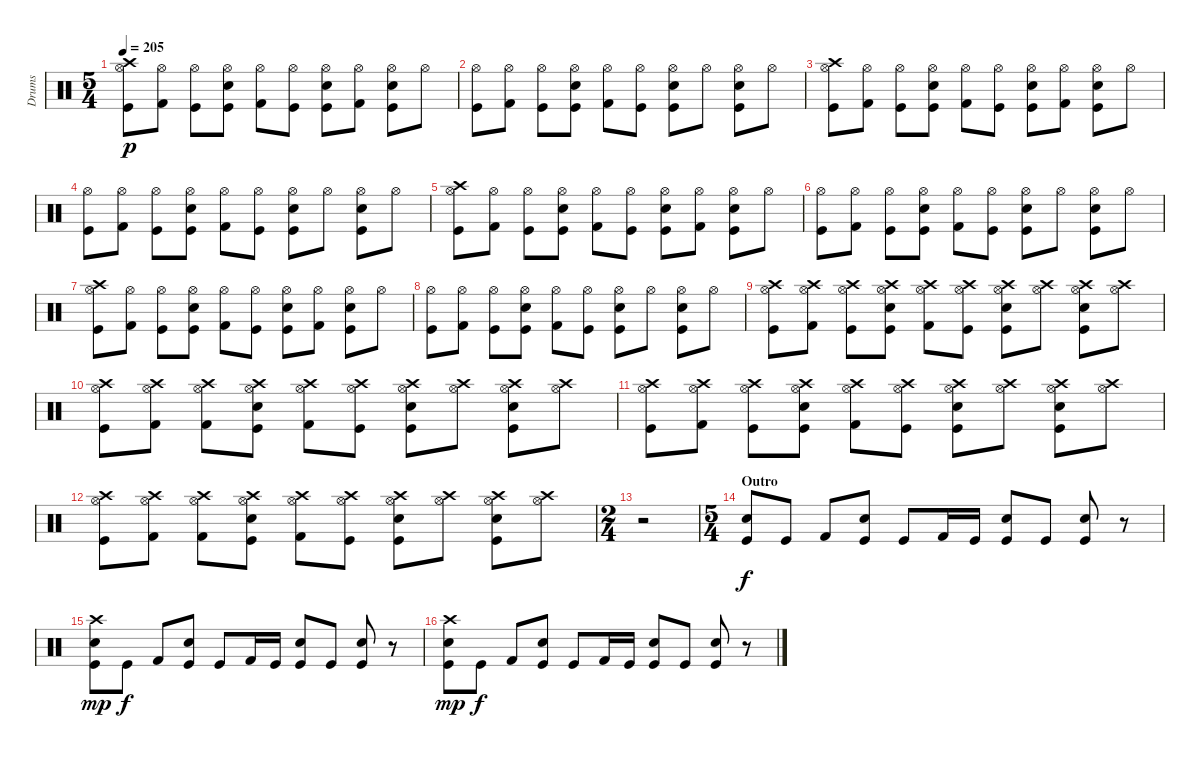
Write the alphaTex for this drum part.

\track ("Drums" "Drums") {instrument percussion}
\staff {score}
\articulation defaults
\ts (5 4)
\tempo 205
\clef neutral
\ks c
("Crash high (hit)" "Hi-Hat (open)" "Kick (hit)").8{dy p} ("Hi-Hat (open)" "Kick (hit) 2").8 ("Hi-Hat (open)" "Kick (hit)").8 ("Hi-Hat (open)" "Snare (hit) 2" "Kick (hit)").8 ("Hi-Hat (open)" "Kick (hit) 2").8 ("Hi-Hat (open)" "Kick (hit)").8 ("Hi-Hat (open)" "Snare (hit) 2" "Kick (hit)").8 ("Hi-Hat (open)" "Kick (hit) 2").8 ("Hi-Hat (open)" "Snare (hit) 2" "Kick (hit)").8 "Hi-Hat (open)".8 |
("Hi-Hat (open)" "Kick (hit)").8 ("Hi-Hat (open)" "Kick (hit) 2").8 ("Hi-Hat (open)" "Kick (hit)").8 ("Hi-Hat (open)" "Snare (hit) 2" "Kick (hit)").8 ("Hi-Hat (open)" "Kick (hit) 2").8 ("Hi-Hat (open)" "Kick (hit)").8 ("Hi-Hat (open)" "Snare (hit) 2" "Kick (hit)").8 "Hi-Hat (open)".8 ("Hi-Hat (open)" "Snare (hit) 2" "Kick (hit)").8 "Hi-Hat (open)".8 |
("Crash high (hit)" "Hi-Hat (open)" "Kick (hit)").8 ("Hi-Hat (open)" "Kick (hit) 2").8 ("Hi-Hat (open)" "Kick (hit)").8 ("Hi-Hat (open)" "Snare (hit) 2" "Kick (hit)").8 ("Hi-Hat (open)" "Kick (hit) 2").8 ("Hi-Hat (open)" "Kick (hit)").8 ("Hi-Hat (open)" "Snare (hit) 2" "Kick (hit)").8 ("Hi-Hat (open)" "Kick (hit) 2").8 ("Hi-Hat (open)" "Snare (hit) 2" "Kick (hit)").8 "Hi-Hat (open)".8 |
("Hi-Hat (open)" "Kick (hit)").8 ("Hi-Hat (open)" "Kick (hit) 2").8 ("Hi-Hat (open)" "Kick (hit)").8 ("Hi-Hat (open)" "Snare (hit) 2" "Kick (hit)").8 ("Hi-Hat (open)" "Kick (hit) 2").8 ("Hi-Hat (open)" "Kick (hit)").8 ("Hi-Hat (open)" "Snare (hit) 2" "Kick (hit)").8 "Hi-Hat (open)".8 ("Hi-Hat (open)" "Snare (hit) 2" "Kick (hit)").8 "Hi-Hat (open)".8 |
("Crash high (hit)" "Hi-Hat (open)" "Kick (hit)").8 ("Hi-Hat (open)" "Kick (hit) 2").8 ("Hi-Hat (open)" "Kick (hit)").8 ("Hi-Hat (open)" "Snare (hit) 2" "Kick (hit)").8 ("Hi-Hat (open)" "Kick (hit) 2").8 ("Hi-Hat (open)" "Kick (hit)").8 ("Hi-Hat (open)" "Snare (hit) 2" "Kick (hit)").8 ("Hi-Hat (open)" "Kick (hit) 2").8 ("Hi-Hat (open)" "Snare (hit) 2" "Kick (hit)").8 "Hi-Hat (open)".8 |
("Hi-Hat (open)" "Kick (hit)").8 ("Hi-Hat (open)" "Kick (hit) 2").8 ("Hi-Hat (open)" "Kick (hit)").8 ("Hi-Hat (open)" "Snare (hit) 2" "Kick (hit)").8 ("Hi-Hat (open)" "Kick (hit) 2").8 ("Hi-Hat (open)" "Kick (hit)").8 ("Hi-Hat (open)" "Snare (hit) 2" "Kick (hit)").8 "Hi-Hat (open)".8 ("Hi-Hat (open)" "Snare (hit) 2" "Kick (hit)").8 "Hi-Hat (open)".8 |
("Crash high (hit)" "Hi-Hat (open)" "Kick (hit)").8 ("Hi-Hat (open)" "Kick (hit) 2").8 ("Hi-Hat (open)" "Kick (hit)").8 ("Hi-Hat (open)" "Snare (hit) 2" "Kick (hit)").8 ("Hi-Hat (open)" "Kick (hit) 2").8 ("Hi-Hat (open)" "Kick (hit)").8 ("Hi-Hat (open)" "Snare (hit) 2" "Kick (hit)").8 ("Hi-Hat (open)" "Kick (hit) 2").8 ("Hi-Hat (open)" "Snare (hit) 2" "Kick (hit)").8 "Hi-Hat (open)".8 |
("Hi-Hat (open)" "Kick (hit)").8 ("Hi-Hat (open)" "Kick (hit) 2").8 ("Hi-Hat (open)" "Kick (hit)").8 ("Hi-Hat (open)" "Snare (hit) 2" "Kick (hit)").8 ("Hi-Hat (open)" "Kick (hit) 2").8 ("Hi-Hat (open)" "Kick (hit)").8 ("Hi-Hat (open)" "Snare (hit) 2" "Kick (hit)").8 "Hi-Hat (open)".8 ("Hi-Hat (open)" "Snare (hit) 2" "Kick (hit)").8 "Hi-Hat (open)".8 |
("Crash high (hit)" "Hi-Hat (open)" "Kick (hit)").8 ("Crash high (hit)" "Hi-Hat (open)" "Kick (hit) 2").8 ("Crash high (hit)" "Hi-Hat (open)" "Kick (hit)").8 ("Crash high (hit)" "Hi-Hat (open)" "Snare (hit) 2" "Kick (hit)").8 ("Crash high (hit)" "Hi-Hat (open)" "Kick (hit) 2").8 ("Crash high (hit)" "Hi-Hat (open)" "Kick (hit)").8 ("Crash high (hit)" "Hi-Hat (open)" "Snare (hit) 2" "Kick (hit)").8 ("Crash high (hit)" "Hi-Hat (open)").8 ("Crash high (hit)" "Hi-Hat (open)" "Snare (hit) 2" "Kick (hit)").8 ("Crash high (hit)" "Hi-Hat (open)").8 |
("Crash high (hit)" "Hi-Hat (open)" "Kick (hit)").8 ("Crash high (hit)" "Hi-Hat (open)" "Kick (hit) 2").8 ("Crash high (hit)" "Hi-Hat (open)" "Kick (hit) 2").8 ("Crash high (hit)" "Hi-Hat (open)" "Snare (hit) 2" "Kick (hit)").8 ("Crash high (hit)" "Hi-Hat (open)" "Kick (hit) 2").8 ("Crash high (hit)" "Hi-Hat (open)" "Kick (hit)").8 ("Crash high (hit)" "Hi-Hat (open)" "Snare (hit) 2" "Kick (hit)").8 ("Crash high (hit)" "Hi-Hat (open)").8 ("Crash high (hit)" "Hi-Hat (open)" "Snare (hit) 2" "Kick (hit)").8 ("Crash high (hit)" "Hi-Hat (open)").8 |
("Crash high (hit)" "Hi-Hat (open)" "Kick (hit)").8 ("Crash high (hit)" "Hi-Hat (open)" "Kick (hit) 2").8 ("Crash high (hit)" "Hi-Hat (open)" "Kick (hit)").8 ("Crash high (hit)" "Hi-Hat (open)" "Snare (hit) 2" "Kick (hit)").8 ("Crash high (hit)" "Hi-Hat (open)" "Kick (hit) 2").8 ("Crash high (hit)" "Hi-Hat (open)" "Kick (hit)").8 ("Crash high (hit)" "Hi-Hat (open)" "Snare (hit) 2" "Kick (hit)").8 ("Crash high (hit)" "Hi-Hat (open)").8 ("Crash high (hit)" "Hi-Hat (open)" "Snare (hit) 2" "Kick (hit)").8 ("Crash high (hit)" "Hi-Hat (open)").8 |
("Crash high (hit)" "Hi-Hat (open)" "Kick (hit)").8 ("Crash high (hit)" "Hi-Hat (open)" "Kick (hit) 2").8 ("Crash high (hit)" "Hi-Hat (open)" "Kick (hit) 2").8 ("Crash high (hit)" "Hi-Hat (open)" "Snare (hit) 2" "Kick (hit)").8 ("Crash high (hit)" "Hi-Hat (open)" "Kick (hit) 2").8 ("Crash high (hit)" "Hi-Hat (open)" "Kick (hit)").8 ("Crash high (hit)" "Hi-Hat (open)" "Snare (hit) 2" "Kick (hit)").8 ("Crash high (hit)" "Hi-Hat (open)").8 ("Crash high (hit)" "Hi-Hat (open)" "Snare (hit) 2" "Kick (hit)").8 ("Crash high (hit)" "Hi-Hat (open)").8 |
\ts (2 4)
r.2 |
\ts (5 4)
\section ("" "Outro")
("Snare (hit) 2" "Kick (hit)").8{dy f} "Kick (hit)".8 "Kick (hit) 2".8 ("Snare (hit) 2" "Kick (hit)").8 "Kick (hit)".8 "Kick (hit) 2".16 "Kick (hit)".16 ("Snare (hit) 2" "Kick (hit)").8 "Kick (hit)".8 ("Snare (hit) 2" "Kick (hit)").8 r.8 |
("Crash high (hit)" "Snare (hit) 2" "Kick (hit)").8{dy mp} "Kick (hit)".8{dy f} "Kick (hit) 2".8 ("Snare (hit) 2" "Kick (hit)").8 "Kick (hit)".8 "Kick (hit) 2".16 "Kick (hit)".16 ("Snare (hit) 2" "Kick (hit)").8 "Kick (hit)".8 ("Snare (hit) 2" "Kick (hit)").8 r.8 |
("Crash high (hit)" "Snare (hit) 2" "Kick (hit)").8{dy mp} "Kick (hit)".8{dy f} "Kick (hit) 2".8 ("Snare (hit) 2" "Kick (hit)").8 "Kick (hit)".8 "Kick (hit) 2".16 "Kick (hit)".16 ("Snare (hit) 2" "Kick (hit)").8 "Kick (hit)".8 ("Snare (hit) 2" "Kick (hit)").8 r.8
